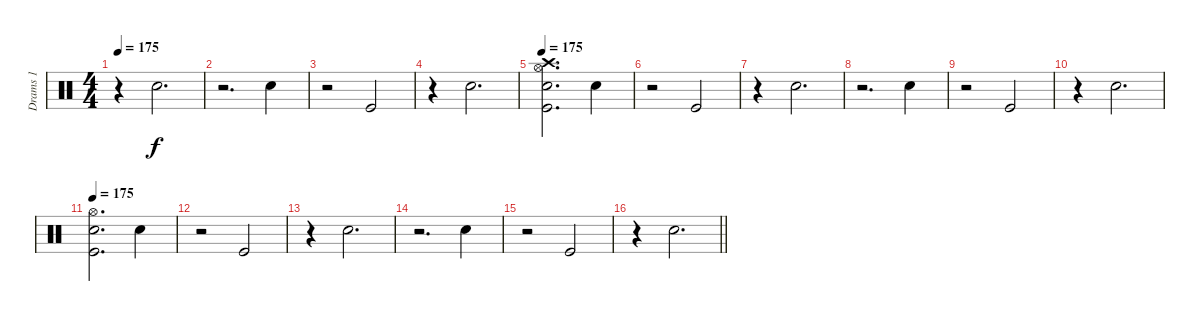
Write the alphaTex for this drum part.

\track ("Drams 1" "Drams 1") {instrument percussion}
\staff {score}
\articulation defaults
\ts (4 4)
\tempo 175
\clef neutral
\ks c
r.4{dy f} "Snare (hit) 2".2{d} |
r.2{d} "Snare (hit) 2".4 |
r.2 "Kick (hit)".2 |
r.4 "Snare (hit) 2".2{d} |
\tempo 175
("Kick (hit)" "Snare (hit) 2" "Hi-Hat (open)" "Crash high (hit)").2{d} "Snare (hit) 2".4 |
r.2 "Kick (hit)".2 |
r.4 "Snare (hit) 2".2{d} |
r.2{d} "Snare (hit) 2".4 |
r.2 "Kick (hit)".2 |
r.4 "Snare (hit) 2".2{d} |
\tempo 175
("Kick (hit)" "Snare (hit) 2" "Hi-Hat (open)").2{d} "Snare (hit) 2".4 |
r.2 "Kick (hit)".2 |
r.4 "Snare (hit) 2".2{d} |
r.2{d} "Snare (hit) 2".4 |
r.2 "Kick (hit)".2 |
\barLineRight lightlight
r.4 "Snare (hit) 2".2{d}
